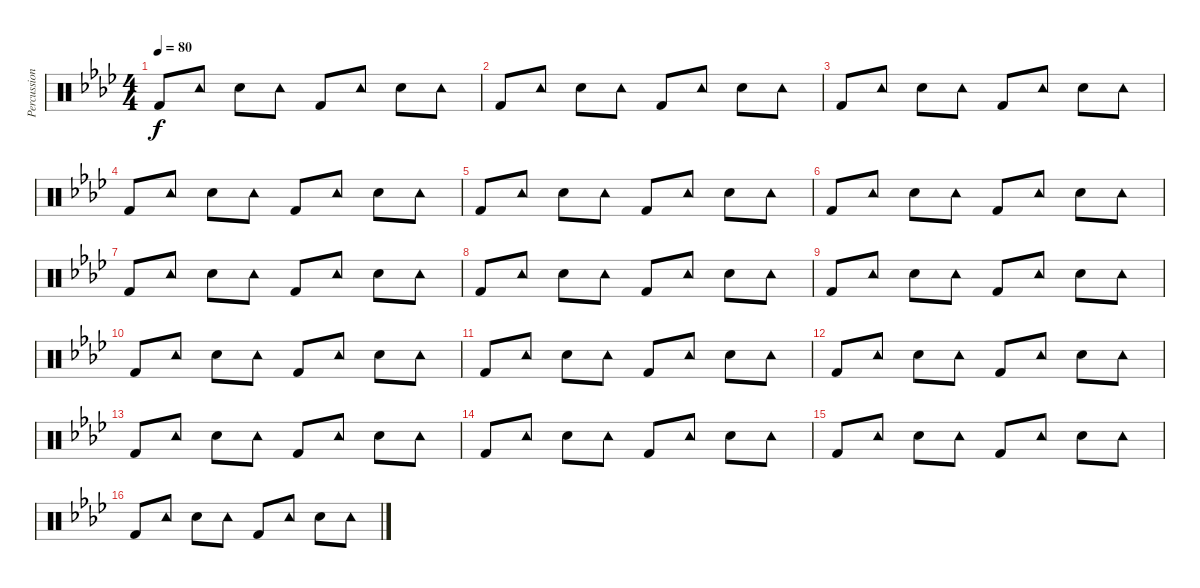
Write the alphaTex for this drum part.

\track ("Percussions" "Percussion") {instrument percussion}
\staff {score}
\articulation defaults
\ts (4 4)
\tempo 80
\clef neutral
\ks ab "Kick (hit) 2".8{dy f} "Tambourine (hit)".8 "Electric Snare (hit)".8 "Tambourine (hit)".8 "Kick (hit) 2".8 "Tambourine (hit)".8 "Electric Snare (hit)".8 "Tambourine (hit)".8
|
"Kick (hit) 2".8 "Tambourine (hit)".8 "Electric Snare (hit)".8 "Tambourine (hit)".8 "Kick (hit) 2".8 "Tambourine (hit)".8 "Electric Snare (hit)".8 "Tambourine (hit)".8 |
"Kick (hit) 2".8 "Tambourine (hit)".8 "Electric Snare (hit)".8 "Tambourine (hit)".8 "Kick (hit) 2".8 "Tambourine (hit)".8 "Electric Snare (hit)".8 "Tambourine (hit)".8 |
"Kick (hit) 2".8 "Tambourine (hit)".8 "Electric Snare (hit)".8 "Tambourine (hit)".8 "Kick (hit) 2".8 "Tambourine (hit)".8 "Electric Snare (hit)".8 "Tambourine (hit)".8 |
"Kick (hit) 2".8 "Tambourine (hit)".8 "Electric Snare (hit)".8 "Tambourine (hit)".8 "Kick (hit) 2".8 "Tambourine (hit)".8 "Electric Snare (hit)".8 "Tambourine (hit)".8 |
"Kick (hit) 2".8 "Tambourine (hit)".8 "Electric Snare (hit)".8 "Tambourine (hit)".8 "Kick (hit) 2".8 "Tambourine (hit)".8 "Electric Snare (hit)".8 "Tambourine (hit)".8 |
"Kick (hit) 2".8 "Tambourine (hit)".8 "Electric Snare (hit)".8 "Tambourine (hit)".8 "Kick (hit) 2".8 "Tambourine (hit)".8 "Electric Snare (hit)".8 "Tambourine (hit)".8 |
"Kick (hit) 2".8 "Tambourine (hit)".8 "Electric Snare (hit)".8 "Tambourine (hit)".8 "Kick (hit) 2".8 "Tambourine (hit)".8 "Electric Snare (hit)".8 "Tambourine (hit)".8 |
"Kick (hit) 2".8 "Tambourine (hit)".8 "Electric Snare (hit)".8 "Tambourine (hit)".8 "Kick (hit) 2".8 "Tambourine (hit)".8 "Electric Snare (hit)".8 "Tambourine (hit)".8 |
"Kick (hit) 2".8 "Tambourine (hit)".8 "Electric Snare (hit)".8 "Tambourine (hit)".8 "Kick (hit) 2".8 "Tambourine (hit)".8 "Electric Snare (hit)".8 "Tambourine (hit)".8 |
"Kick (hit) 2".8 "Tambourine (hit)".8 "Electric Snare (hit)".8 "Tambourine (hit)".8 "Kick (hit) 2".8 "Tambourine (hit)".8 "Electric Snare (hit)".8 "Tambourine (hit)".8 |
"Kick (hit) 2".8 "Tambourine (hit)".8 "Electric Snare (hit)".8 "Tambourine (hit)".8 "Kick (hit) 2".8 "Tambourine (hit)".8 "Electric Snare (hit)".8 "Tambourine (hit)".8 |
"Kick (hit) 2".8 "Tambourine (hit)".8 "Electric Snare (hit)".8 "Tambourine (hit)".8 "Kick (hit) 2".8 "Tambourine (hit)".8 "Electric Snare (hit)".8 "Tambourine (hit)".8 |
"Kick (hit) 2".8 "Tambourine (hit)".8 "Electric Snare (hit)".8 "Tambourine (hit)".8 "Kick (hit) 2".8 "Tambourine (hit)".8 "Electric Snare (hit)".8 "Tambourine (hit)".8 |
"Kick (hit) 2".8 "Tambourine (hit)".8 "Electric Snare (hit)".8 "Tambourine (hit)".8 "Kick (hit) 2".8 "Tambourine (hit)".8 "Electric Snare (hit)".8 "Tambourine (hit)".8 |
"Kick (hit) 2".8 "Tambourine (hit)".8 "Electric Snare (hit)".8 "Tambourine (hit)".8 "Kick (hit) 2".8 "Tambourine (hit)".8 "Electric Snare (hit)".8 "Tambourine (hit)".8
